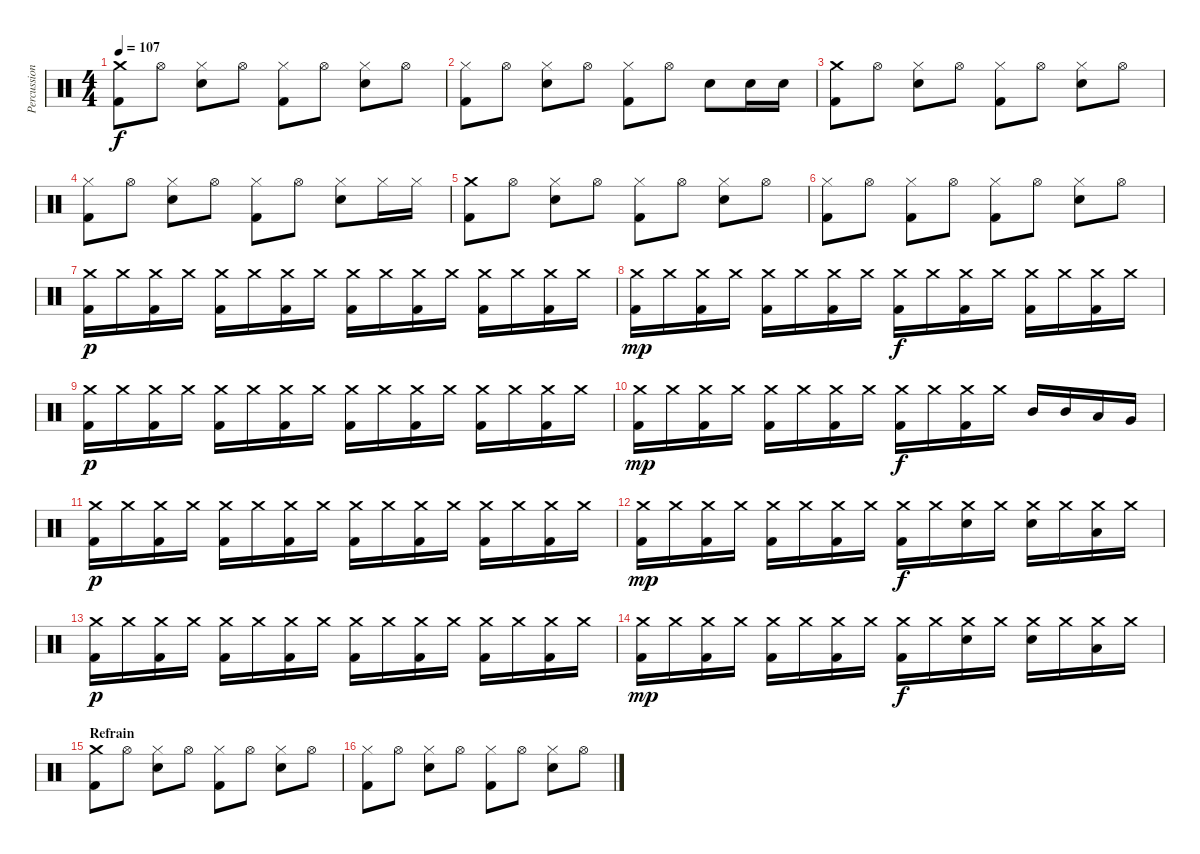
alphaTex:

\track ("Percussions" "Percussion") {instrument percussion}
\staff {score}
\articulation defaults
\ts (4 4)
\tempo 107
\clef neutral
\ks c
("Crash medium (hit)" "Kick (hit) 2").8{dy f} "Hi-Hat (open)".8 ("Hi-Hat (closed)" "Electric Snare (hit)").8 "Hi-Hat (open)".8 ("Hi-Hat (closed)" "Kick (hit) 2").8 "Hi-Hat (open)".8 ("Hi-Hat (closed)" "Electric Snare (hit)").8 "Hi-Hat (open)".8 |
("Hi-Hat (closed)" "Kick (hit) 2").8 "Hi-Hat (open)".8 ("Hi-Hat (closed)" "Electric Snare (hit)").8 "Hi-Hat (open)".8 ("Hi-Hat (closed)" "Kick (hit) 2").8 "Hi-Hat (open)".8 "Electric Snare (hit)".8 "Electric Snare (hit)".16 "Electric Snare (hit)".16 |
("Crash medium (hit)" "Kick (hit) 2").8 "Hi-Hat (open)".8 ("Hi-Hat (closed)" "Electric Snare (hit)").8 "Hi-Hat (open)".8 ("Hi-Hat (closed)" "Kick (hit) 2").8 "Hi-Hat (open)".8 ("Hi-Hat (closed)" "Electric Snare (hit)").8 "Hi-Hat (open)".8 |
("Hi-Hat (closed)" "Kick (hit) 2").8 "Hi-Hat (open)".8 ("Hi-Hat (closed)" "Electric Snare (hit)").8 "Hi-Hat (open)".8 ("Hi-Hat (closed)" "Kick (hit) 2").8 "Hi-Hat (open)".8 ("Hi-Hat (closed)" "Electric Snare (hit)").8 "Hi-Hat (closed)".16 "Hi-Hat (closed)".16 |
("Crash medium (hit)" "Kick (hit) 2").8 "Hi-Hat (open)".8 ("Hi-Hat (closed)" "Electric Snare (hit)").8 "Hi-Hat (open)".8 ("Hi-Hat (closed)" "Kick (hit) 2").8 "Hi-Hat (open)".8 ("Hi-Hat (closed)" "Electric Snare (hit)").8 "Hi-Hat (open)".8 |
("Hi-Hat (closed)" "Kick (hit) 2").8 "Hi-Hat (open)".8 ("Hi-Hat (closed)" "Kick (hit) 2").8 "Hi-Hat (open)".8 ("Hi-Hat (closed)" "Kick (hit) 2").8 "Hi-Hat (open)".8 ("Hi-Hat (closed)" "Electric Snare (hit)").8 "Hi-Hat (open)".8 |
("Crash medium (hit)" "Kick (hit) 2").16{dy p} "Crash medium (hit)".16 ("Crash medium (hit)" "Kick (hit) 2").16 "Crash medium (hit)".16 ("Crash medium (hit)" "Kick (hit) 2").16 "Crash medium (hit)".16 ("Crash medium (hit)" "Kick (hit) 2").16 "Crash medium (hit)".16 ("Crash medium (hit)" "Kick (hit) 2").16 "Crash medium (hit)".16 ("Crash medium (hit)" "Kick (hit) 2").16 "Crash medium (hit)".16 ("Crash medium (hit)" "Kick (hit) 2").16 "Crash medium (hit)".16 ("Crash medium (hit)" "Kick (hit) 2").16 "Crash medium (hit)".16 |
("Crash medium (hit)" "Kick (hit) 2").16{dy mp} "Crash medium (hit)".16 ("Crash medium (hit)" "Kick (hit) 2").16 "Crash medium (hit)".16 ("Crash medium (hit)" "Kick (hit) 2").16 "Crash medium (hit)".16 ("Crash medium (hit)" "Kick (hit) 2").16 "Crash medium (hit)".16 ("Crash medium (hit)" "Kick (hit) 2").16{dy f} "Crash medium (hit)".16 ("Crash medium (hit)" "Kick (hit) 2").16 "Crash medium (hit)".16 ("Crash medium (hit)" "Kick (hit) 2").16 "Crash medium (hit)".16 ("Crash medium (hit)" "Kick (hit) 2").16 "Crash medium (hit)".16 |
("Crash medium (hit)" "Kick (hit) 2").16{dy p} "Crash medium (hit)".16 ("Crash medium (hit)" "Kick (hit) 2").16 "Crash medium (hit)".16 ("Crash medium (hit)" "Kick (hit) 2").16 "Crash medium (hit)".16 ("Crash medium (hit)" "Kick (hit) 2").16 "Crash medium (hit)".16 ("Crash medium (hit)" "Kick (hit) 2").16 "Crash medium (hit)".16 ("Crash medium (hit)" "Kick (hit) 2").16 "Crash medium (hit)".16 ("Crash medium (hit)" "Kick (hit) 2").16 "Crash medium (hit)".16 ("Crash medium (hit)" "Kick (hit) 2").16 "Crash medium (hit)".16 |
("Crash medium (hit)" "Kick (hit) 2").16{dy mp} "Crash medium (hit)".16 ("Crash medium (hit)" "Kick (hit) 2").16 "Crash medium (hit)".16 ("Crash medium (hit)" "Kick (hit) 2").16 "Crash medium (hit)".16 ("Crash medium (hit)" "Kick (hit) 2").16 "Crash medium (hit)".16 ("Crash medium (hit)" "Kick (hit) 2").16{dy f} "Crash medium (hit)".16 ("Crash medium (hit)" "Kick (hit) 2").16 "Crash medium (hit)".16 "Mid Tom (hit)".16 "Mid Tom (hit)".16 "Low Tom (hit)".16 "Very Low Tom (hit)".16 |
("Crash medium (hit)" "Kick (hit) 2").16{dy p} "Crash medium (hit)".16 ("Crash medium (hit)" "Kick (hit) 2").16 "Crash medium (hit)".16 ("Crash medium (hit)" "Kick (hit) 2").16 "Crash medium (hit)".16 ("Crash medium (hit)" "Kick (hit) 2").16 "Crash medium (hit)".16 ("Crash medium (hit)" "Kick (hit) 2").16 "Crash medium (hit)".16 ("Crash medium (hit)" "Kick (hit) 2").16 "Crash medium (hit)".16 ("Crash medium (hit)" "Kick (hit) 2").16 "Crash medium (hit)".16 ("Crash medium (hit)" "Kick (hit) 2").16 "Crash medium (hit)".16 |
("Crash medium (hit)" "Kick (hit) 2").16{dy mp} "Crash medium (hit)".16 ("Crash medium (hit)" "Kick (hit) 2").16 "Crash medium (hit)".16 ("Crash medium (hit)" "Kick (hit) 2").16 "Crash medium (hit)".16 ("Crash medium (hit)" "Kick (hit) 2").16 "Crash medium (hit)".16 ("Crash medium (hit)" "Kick (hit) 2").16{dy f} "Crash medium (hit)".16 ("Crash medium (hit)" "Electric Snare (hit)").16 "Crash medium (hit)".16 ("Crash medium (hit)" "Electric Snare (hit)").16 "Crash medium (hit)".16 ("Crash medium (hit)" "Low Tom (hit)").16 "Crash medium (hit)".16 |
("Crash medium (hit)" "Kick (hit) 2").16{dy p} "Crash medium (hit)".16 ("Crash medium (hit)" "Kick (hit) 2").16 "Crash medium (hit)".16 ("Crash medium (hit)" "Kick (hit) 2").16 "Crash medium (hit)".16 ("Crash medium (hit)" "Kick (hit) 2").16 "Crash medium (hit)".16 ("Crash medium (hit)" "Kick (hit) 2").16 "Crash medium (hit)".16 ("Crash medium (hit)" "Kick (hit) 2").16 "Crash medium (hit)".16 ("Crash medium (hit)" "Kick (hit) 2").16 "Crash medium (hit)".16 ("Crash medium (hit)" "Kick (hit) 2").16 "Crash medium (hit)".16 |
("Crash medium (hit)" "Kick (hit) 2").16{dy mp} "Crash medium (hit)".16 ("Crash medium (hit)" "Kick (hit) 2").16 "Crash medium (hit)".16 ("Crash medium (hit)" "Kick (hit) 2").16 "Crash medium (hit)".16 ("Crash medium (hit)" "Kick (hit) 2").16 "Crash medium (hit)".16 ("Crash medium (hit)" "Kick (hit) 2").16{dy f} "Crash medium (hit)".16 ("Crash medium (hit)" "Electric Snare (hit)").16 "Crash medium (hit)".16 ("Crash medium (hit)" "Electric Snare (hit)").16 "Crash medium (hit)".16 ("Crash medium (hit)" "Low Tom (hit)").16 "Crash medium (hit)".16 |
\section ("" "Refrain")
("Crash medium (hit)" "Kick (hit) 2").8 "Hi-Hat (open)".8 ("Hi-Hat (closed)" "Electric Snare (hit)").8 "Hi-Hat (open)".8 ("Hi-Hat (closed)" "Kick (hit) 2").8 "Hi-Hat (open)".8 ("Hi-Hat (closed)" "Electric Snare (hit)").8 "Hi-Hat (open)".8 |
("Hi-Hat (closed)" "Kick (hit) 2").8 "Hi-Hat (open)".8 ("Hi-Hat (closed)" "Electric Snare (hit)").8 "Hi-Hat (open)".8 ("Hi-Hat (closed)" "Kick (hit) 2").8 "Hi-Hat (open)".8 ("Hi-Hat (closed)" "Electric Snare (hit)").8 "Hi-Hat (open)".8
